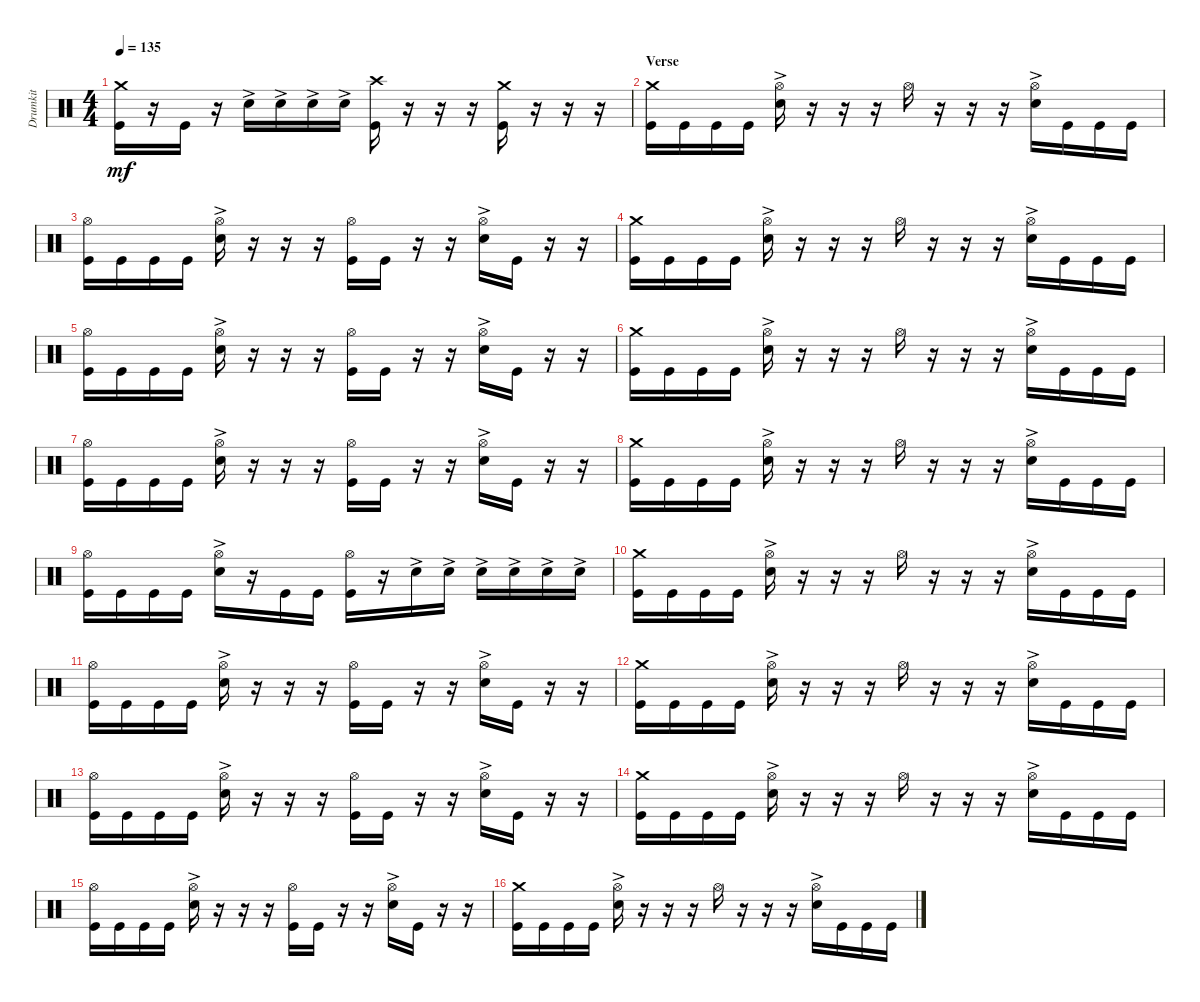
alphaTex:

\track ("Drumkit" "Drumkit") {instrument percussion}
\staff {score}
\articulation defaults
\ts (4 4)
\tempo 135
\clef neutral
\ks c
("Kick (hit)" "Crash medium (hit)").16{dy mf} r.16 "Kick (hit)".16 r.16 "Snare (hit) 2"{ac}.16 "Snare (hit) 2"{ac}.16 "Snare (hit) 2"{ac}.16 "Snare (hit) 2"{ac}.16 ("Kick (hit)" "Crash high (hit)").16 r.16 r.16 r.16 ("Kick (hit)" "Crash medium (hit)").16 r.16 r.16 r.16 |
\section ("" "Verse")
("Crash medium (hit)" "Kick (hit)").16 "Kick (hit)".16 "Kick (hit)".16 "Kick (hit)".16 ("Hi-Hat (open)" "Snare (hit) 2"{ac}).16 r.16 r.16 r.16 "Hi-Hat (open)".16 r.16 r.16 r.16 ("Hi-Hat (open)" "Snare (hit) 2"{ac}).16 "Kick (hit)".16 "Kick (hit)".16 "Kick (hit)".16 |
("Kick (hit)" "Hi-Hat (open)").16 "Kick (hit)".16 "Kick (hit)".16 "Kick (hit)".16 ("Snare (hit) 2"{ac} "Hi-Hat (open)").16 r.16 r.16 r.16 ("Kick (hit)" "Hi-Hat (open)").16 "Kick (hit)".16 r.16 r.16 ("Snare (hit) 2"{ac} "Hi-Hat (open)").16 "Kick (hit)".16 r.16 r.16 |
("Crash medium (hit)" "Kick (hit)").16 "Kick (hit)".16 "Kick (hit)".16 "Kick (hit)".16 ("Hi-Hat (open)" "Snare (hit) 2"{ac}).16 r.16 r.16 r.16 "Hi-Hat (open)".16 r.16 r.16 r.16 ("Hi-Hat (open)" "Snare (hit) 2"{ac}).16 "Kick (hit)".16 "Kick (hit)".16 "Kick (hit)".16 |
("Kick (hit)" "Hi-Hat (open)").16 "Kick (hit)".16 "Kick (hit)".16 "Kick (hit)".16 ("Snare (hit) 2"{ac} "Hi-Hat (open)").16 r.16 r.16 r.16 ("Kick (hit)" "Hi-Hat (open)").16 "Kick (hit)".16 r.16 r.16 ("Snare (hit) 2"{ac} "Hi-Hat (open)").16 "Kick (hit)".16 r.16 r.16 |
("Crash medium (hit)" "Kick (hit)").16 "Kick (hit)".16 "Kick (hit)".16 "Kick (hit)".16 ("Hi-Hat (open)" "Snare (hit) 2"{ac}).16 r.16 r.16 r.16 "Hi-Hat (open)".16 r.16 r.16 r.16 ("Hi-Hat (open)" "Snare (hit) 2"{ac}).16 "Kick (hit)".16 "Kick (hit)".16 "Kick (hit)".16 |
("Kick (hit)" "Hi-Hat (open)").16 "Kick (hit)".16 "Kick (hit)".16 "Kick (hit)".16 ("Snare (hit) 2"{ac} "Hi-Hat (open)").16 r.16 r.16 r.16 ("Kick (hit)" "Hi-Hat (open)").16 "Kick (hit)".16 r.16 r.16 ("Snare (hit) 2"{ac} "Hi-Hat (open)").16 "Kick (hit)".16 r.16 r.16 |
("Crash medium (hit)" "Kick (hit)").16 "Kick (hit)".16 "Kick (hit)".16 "Kick (hit)".16 ("Hi-Hat (open)" "Snare (hit) 2"{ac}).16 r.16 r.16 r.16 "Hi-Hat (open)".16 r.16 r.16 r.16 ("Hi-Hat (open)" "Snare (hit) 2"{ac}).16 "Kick (hit)".16 "Kick (hit)".16 "Kick (hit)".16 |
("Kick (hit)" "Hi-Hat (open)").16 "Kick (hit)".16 "Kick (hit)".16 "Kick (hit)".16 ("Snare (hit) 2"{ac} "Hi-Hat (open)").16 r.16 "Kick (hit)".16 "Kick (hit)".16 ("Kick (hit)" "Hi-Hat (open)").16 r.16 "Snare (hit) 2"{ac}.16 "Snare (hit) 2"{ac}.16 "Snare (hit) 2"{ac}.16 "Snare (hit) 2"{ac}.16 "Snare (hit) 2"{ac}.16 "Snare (hit) 2"{ac}.16 |
("Crash medium (hit)" "Kick (hit)").16 "Kick (hit)".16 "Kick (hit)".16 "Kick (hit)".16 ("Hi-Hat (open)" "Snare (hit) 2"{ac}).16 r.16 r.16 r.16 "Hi-Hat (open)".16 r.16 r.16 r.16 ("Hi-Hat (open)" "Snare (hit) 2"{ac}).16 "Kick (hit)".16 "Kick (hit)".16 "Kick (hit)".16 |
("Kick (hit)" "Hi-Hat (open)").16 "Kick (hit)".16 "Kick (hit)".16 "Kick (hit)".16 ("Snare (hit) 2"{ac} "Hi-Hat (open)").16 r.16 r.16 r.16 ("Kick (hit)" "Hi-Hat (open)").16 "Kick (hit)".16 r.16 r.16 ("Snare (hit) 2"{ac} "Hi-Hat (open)").16 "Kick (hit)".16 r.16 r.16 |
("Crash medium (hit)" "Kick (hit)").16 "Kick (hit)".16 "Kick (hit)".16 "Kick (hit)".16 ("Hi-Hat (open)" "Snare (hit) 2"{ac}).16 r.16 r.16 r.16 "Hi-Hat (open)".16 r.16 r.16 r.16 ("Hi-Hat (open)" "Snare (hit) 2"{ac}).16 "Kick (hit)".16 "Kick (hit)".16 "Kick (hit)".16 |
("Kick (hit)" "Hi-Hat (open)").16 "Kick (hit)".16 "Kick (hit)".16 "Kick (hit)".16 ("Snare (hit) 2"{ac} "Hi-Hat (open)").16 r.16 r.16 r.16 ("Kick (hit)" "Hi-Hat (open)").16 "Kick (hit)".16 r.16 r.16 ("Snare (hit) 2"{ac} "Hi-Hat (open)").16 "Kick (hit)".16 r.16 r.16 |
("Crash medium (hit)" "Kick (hit)").16 "Kick (hit)".16 "Kick (hit)".16 "Kick (hit)".16 ("Hi-Hat (open)" "Snare (hit) 2"{ac}).16 r.16 r.16 r.16 "Hi-Hat (open)".16 r.16 r.16 r.16 ("Hi-Hat (open)" "Snare (hit) 2"{ac}).16 "Kick (hit)".16 "Kick (hit)".16 "Kick (hit)".16 |
("Kick (hit)" "Hi-Hat (open)").16 "Kick (hit)".16 "Kick (hit)".16 "Kick (hit)".16 ("Snare (hit) 2"{ac} "Hi-Hat (open)").16 r.16 r.16 r.16 ("Kick (hit)" "Hi-Hat (open)").16 "Kick (hit)".16 r.16 r.16 ("Snare (hit) 2"{ac} "Hi-Hat (open)").16 "Kick (hit)".16 r.16 r.16 |
("Crash medium (hit)" "Kick (hit)").16 "Kick (hit)".16 "Kick (hit)".16 "Kick (hit)".16 ("Hi-Hat (open)" "Snare (hit) 2"{ac}).16 r.16 r.16 r.16 "Hi-Hat (open)".16 r.16 r.16 r.16 ("Hi-Hat (open)" "Snare (hit) 2"{ac}).16 "Kick (hit)".16 "Kick (hit)".16 "Kick (hit)".16
